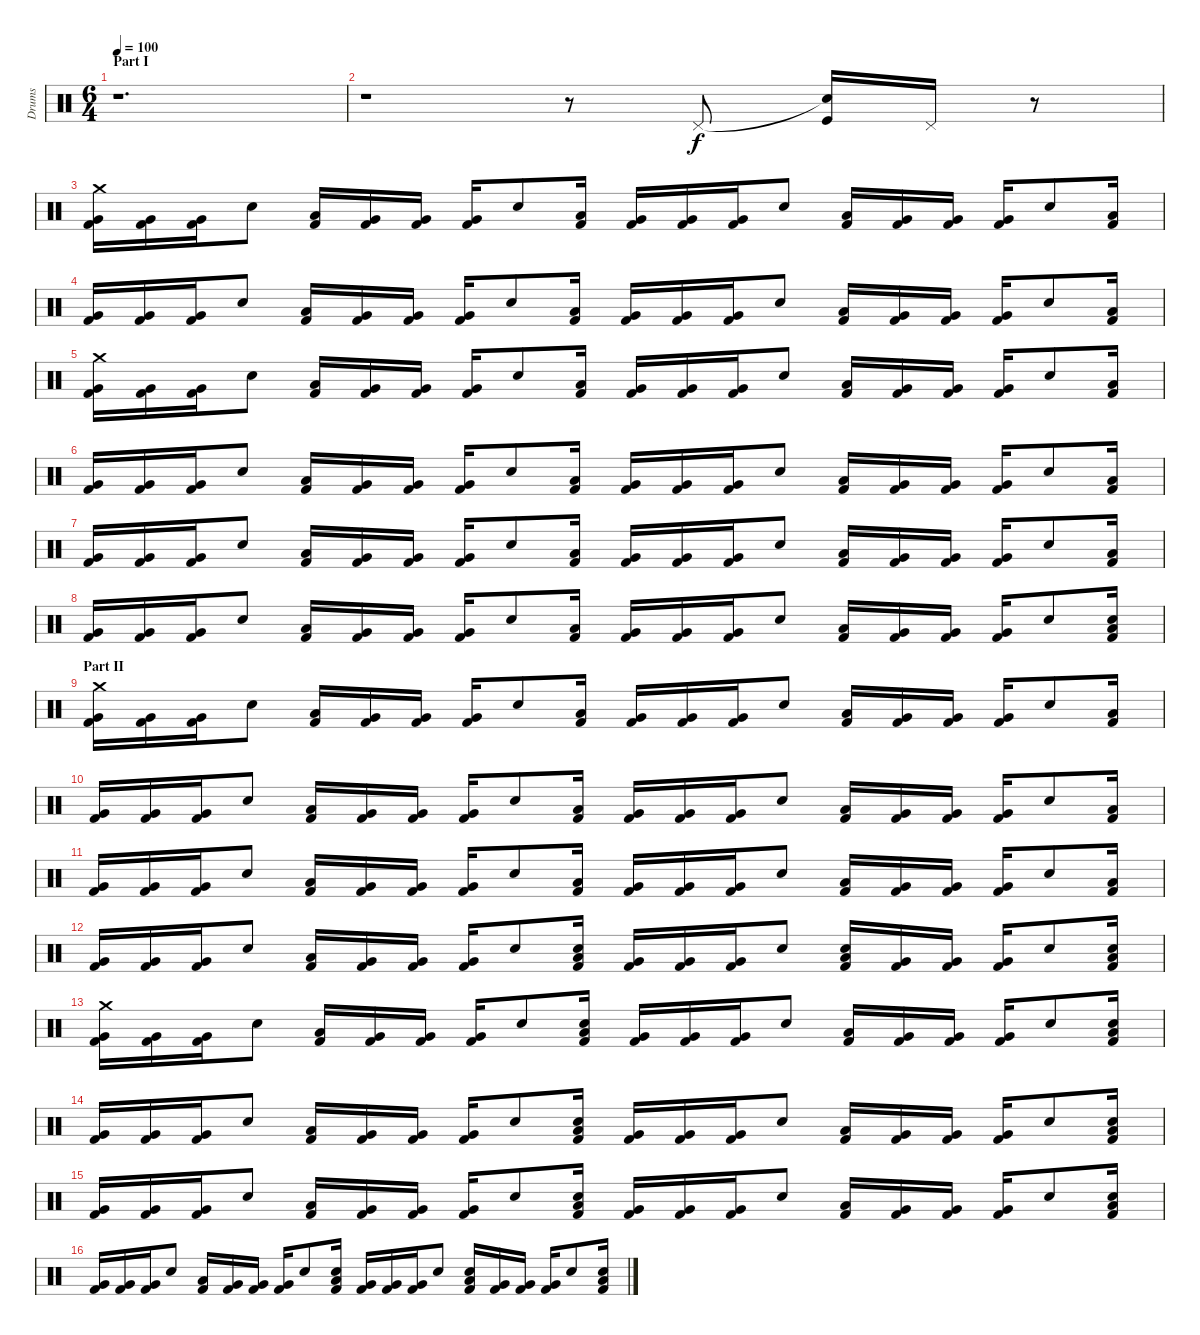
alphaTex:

\track ("Drums" "Drums") {instrument percussion}
\staff {score}
\articulation defaults
\ts (6 4)
\section ("" "Part I")
\tempo 100
\clef neutral
\ks c
r.1{d dy f} |
r.1 r.8 "Pedal Hi-Hat (hit)".8 ("Snare (hit)"{t} "Kick (hit)").16 "Pedal Hi-Hat (hit)".16 r.8 |
("Crash medium (hit)" "Very Low Tom (hit)" "Kick (hit) 2").16 ("Very Low Tom (hit)" "Kick (hit) 2").16 ("Very Low Tom (hit)" "Kick (hit) 2").16 "Electric Snare (hit)".8 ("Low Floor Tom (hit)" "Kick (hit) 2").16 ("Very Low Tom (hit)" "Kick (hit) 2").16 ("Very Low Tom (hit)" "Kick (hit) 2").16 ("Very Low Tom (hit)" "Kick (hit) 2").16 "Electric Snare (hit)".8 ("Low Floor Tom (hit)" "Kick (hit) 2").16 ("Very Low Tom (hit)" "Kick (hit) 2").16 ("Very Low Tom (hit)" "Kick (hit) 2").16 ("Very Low Tom (hit)" "Kick (hit) 2").16 "Electric Snare (hit)".8 ("Low Floor Tom (hit)" "Kick (hit) 2").16 ("Very Low Tom (hit)" "Kick (hit) 2").16 ("Very Low Tom (hit)" "Kick (hit) 2").16 ("Very Low Tom (hit)" "Kick (hit) 2").16 "Electric Snare (hit)".8 ("Low Floor Tom (hit)" "Kick (hit) 2").16 |
("Very Low Tom (hit)" "Kick (hit) 2").16 ("Very Low Tom (hit)" "Kick (hit) 2").16 ("Very Low Tom (hit)" "Kick (hit) 2").16 "Electric Snare (hit)".8 ("Low Floor Tom (hit)" "Kick (hit) 2").16 ("Very Low Tom (hit)" "Kick (hit) 2").16 ("Very Low Tom (hit)" "Kick (hit) 2").16 ("Very Low Tom (hit)" "Kick (hit) 2").16 "Electric Snare (hit)".8 ("Low Floor Tom (hit)" "Kick (hit) 2").16 ("Very Low Tom (hit)" "Kick (hit) 2").16 ("Very Low Tom (hit)" "Kick (hit) 2").16 ("Very Low Tom (hit)" "Kick (hit) 2").16 "Electric Snare (hit)".8 ("Low Floor Tom (hit)" "Kick (hit) 2").16 ("Very Low Tom (hit)" "Kick (hit) 2").16 ("Very Low Tom (hit)" "Kick (hit) 2").16 ("Very Low Tom (hit)" "Kick (hit) 2").16 "Electric Snare (hit)".8 ("Low Floor Tom (hit)" "Kick (hit) 2").16 |
("Crash medium (hit)" "Very Low Tom (hit)" "Kick (hit) 2").16 ("Very Low Tom (hit)" "Kick (hit) 2").16 ("Very Low Tom (hit)" "Kick (hit) 2").16 "Electric Snare (hit)".8 ("Low Floor Tom (hit)" "Kick (hit) 2").16 ("Very Low Tom (hit)" "Kick (hit) 2").16 ("Very Low Tom (hit)" "Kick (hit) 2").16 ("Very Low Tom (hit)" "Kick (hit) 2").16 "Electric Snare (hit)".8 ("Low Floor Tom (hit)" "Kick (hit) 2").16 ("Very Low Tom (hit)" "Kick (hit) 2").16 ("Very Low Tom (hit)" "Kick (hit) 2").16 ("Very Low Tom (hit)" "Kick (hit) 2").16 "Electric Snare (hit)".8 ("Low Floor Tom (hit)" "Kick (hit) 2").16 ("Very Low Tom (hit)" "Kick (hit) 2").16 ("Very Low Tom (hit)" "Kick (hit) 2").16 ("Very Low Tom (hit)" "Kick (hit) 2").16 "Electric Snare (hit)".8 ("Low Floor Tom (hit)" "Kick (hit) 2").16 |
("Very Low Tom (hit)" "Kick (hit) 2").16 ("Very Low Tom (hit)" "Kick (hit) 2").16 ("Very Low Tom (hit)" "Kick (hit) 2").16 "Electric Snare (hit)".8 ("Low Floor Tom (hit)" "Kick (hit) 2").16 ("Very Low Tom (hit)" "Kick (hit) 2").16 ("Very Low Tom (hit)" "Kick (hit) 2").16 ("Very Low Tom (hit)" "Kick (hit) 2").16 "Electric Snare (hit)".8 ("Low Floor Tom (hit)" "Kick (hit) 2").16 ("Very Low Tom (hit)" "Kick (hit) 2").16 ("Very Low Tom (hit)" "Kick (hit) 2").16 ("Very Low Tom (hit)" "Kick (hit) 2").16 "Electric Snare (hit)".8 ("Low Floor Tom (hit)" "Kick (hit) 2").16 ("Very Low Tom (hit)" "Kick (hit) 2").16 ("Very Low Tom (hit)" "Kick (hit) 2").16 ("Very Low Tom (hit)" "Kick (hit) 2").16 "Electric Snare (hit)".8 ("Low Floor Tom (hit)" "Kick (hit) 2").16 |
("Very Low Tom (hit)" "Kick (hit) 2").16 ("Very Low Tom (hit)" "Kick (hit) 2").16 ("Very Low Tom (hit)" "Kick (hit) 2").16 "Electric Snare (hit)".8 ("Low Floor Tom (hit)" "Kick (hit) 2").16 ("Very Low Tom (hit)" "Kick (hit) 2").16 ("Very Low Tom (hit)" "Kick (hit) 2").16 ("Very Low Tom (hit)" "Kick (hit) 2").16 "Electric Snare (hit)".8 ("Low Floor Tom (hit)" "Kick (hit) 2").16 ("Very Low Tom (hit)" "Kick (hit) 2").16 ("Very Low Tom (hit)" "Kick (hit) 2").16 ("Very Low Tom (hit)" "Kick (hit) 2").16 "Electric Snare (hit)".8 ("Low Floor Tom (hit)" "Kick (hit) 2").16 ("Very Low Tom (hit)" "Kick (hit) 2").16 ("Very Low Tom (hit)" "Kick (hit) 2").16 ("Very Low Tom (hit)" "Kick (hit) 2").16 "Electric Snare (hit)".8 ("Low Floor Tom (hit)" "Kick (hit) 2").16 |
("Very Low Tom (hit)" "Kick (hit) 2").16 ("Very Low Tom (hit)" "Kick (hit) 2").16 ("Very Low Tom (hit)" "Kick (hit) 2").16 "Electric Snare (hit)".8 ("Low Floor Tom (hit)" "Kick (hit) 2").16 ("Very Low Tom (hit)" "Kick (hit) 2").16 ("Very Low Tom (hit)" "Kick (hit) 2").16 ("Very Low Tom (hit)" "Kick (hit) 2").16 "Electric Snare (hit)".8 ("Low Floor Tom (hit)" "Kick (hit) 2").16 ("Very Low Tom (hit)" "Kick (hit) 2").16 ("Very Low Tom (hit)" "Kick (hit) 2").16 ("Very Low Tom (hit)" "Kick (hit) 2").16 "Electric Snare (hit)".8 ("Low Floor Tom (hit)" "Kick (hit) 2").16 ("Very Low Tom (hit)" "Kick (hit) 2").16 ("Very Low Tom (hit)" "Kick (hit) 2").16 ("Very Low Tom (hit)" "Kick (hit) 2").16 "Electric Snare (hit)".8 ("Electric Snare (hit)" "Low Floor Tom (hit)" "Kick (hit) 2").16 |
\section ("" "Part II")
("Crash medium (hit)" "Very Low Tom (hit)" "Kick (hit) 2").16 ("Very Low Tom (hit)" "Kick (hit) 2").16 ("Very Low Tom (hit)" "Kick (hit) 2").16 "Electric Snare (hit)".8 ("Low Floor Tom (hit)" "Kick (hit) 2").16 ("Very Low Tom (hit)" "Kick (hit) 2").16 ("Very Low Tom (hit)" "Kick (hit) 2").16 ("Very Low Tom (hit)" "Kick (hit) 2").16 "Electric Snare (hit)".8 ("Low Floor Tom (hit)" "Kick (hit) 2").16 ("Very Low Tom (hit)" "Kick (hit) 2").16 ("Very Low Tom (hit)" "Kick (hit) 2").16 ("Very Low Tom (hit)" "Kick (hit) 2").16 "Electric Snare (hit)".8 ("Low Floor Tom (hit)" "Kick (hit) 2").16 ("Very Low Tom (hit)" "Kick (hit) 2").16 ("Very Low Tom (hit)" "Kick (hit) 2").16 ("Very Low Tom (hit)" "Kick (hit) 2").16 "Electric Snare (hit)".8 ("Low Floor Tom (hit)" "Kick (hit) 2").16 |
("Very Low Tom (hit)" "Kick (hit) 2").16 ("Very Low Tom (hit)" "Kick (hit) 2").16 ("Very Low Tom (hit)" "Kick (hit) 2").16 "Electric Snare (hit)".8 ("Low Floor Tom (hit)" "Kick (hit) 2").16 ("Very Low Tom (hit)" "Kick (hit) 2").16 ("Very Low Tom (hit)" "Kick (hit) 2").16 ("Very Low Tom (hit)" "Kick (hit) 2").16 "Electric Snare (hit)".8 ("Low Floor Tom (hit)" "Kick (hit) 2").16 ("Very Low Tom (hit)" "Kick (hit) 2").16 ("Very Low Tom (hit)" "Kick (hit) 2").16 ("Very Low Tom (hit)" "Kick (hit) 2").16 "Electric Snare (hit)".8 ("Low Floor Tom (hit)" "Kick (hit) 2").16 ("Very Low Tom (hit)" "Kick (hit) 2").16 ("Very Low Tom (hit)" "Kick (hit) 2").16 ("Very Low Tom (hit)" "Kick (hit) 2").16 "Electric Snare (hit)".8 ("Low Floor Tom (hit)" "Kick (hit) 2").16 |
("Very Low Tom (hit)" "Kick (hit) 2").16 ("Very Low Tom (hit)" "Kick (hit) 2").16 ("Very Low Tom (hit)" "Kick (hit) 2").16 "Electric Snare (hit)".8 ("Low Floor Tom (hit)" "Kick (hit) 2").16 ("Very Low Tom (hit)" "Kick (hit) 2").16 ("Very Low Tom (hit)" "Kick (hit) 2").16 ("Very Low Tom (hit)" "Kick (hit) 2").16 "Electric Snare (hit)".8 ("Low Floor Tom (hit)" "Kick (hit) 2").16 ("Very Low Tom (hit)" "Kick (hit) 2").16 ("Very Low Tom (hit)" "Kick (hit) 2").16 ("Very Low Tom (hit)" "Kick (hit) 2").16 "Electric Snare (hit)".8 ("Low Floor Tom (hit)" "Kick (hit) 2").16 ("Very Low Tom (hit)" "Kick (hit) 2").16 ("Very Low Tom (hit)" "Kick (hit) 2").16 ("Very Low Tom (hit)" "Kick (hit) 2").16 "Electric Snare (hit)".8 ("Low Floor Tom (hit)" "Kick (hit) 2").16 |
("Very Low Tom (hit)" "Kick (hit) 2").16 ("Very Low Tom (hit)" "Kick (hit) 2").16 ("Very Low Tom (hit)" "Kick (hit) 2").16 "Electric Snare (hit)".8 ("Low Floor Tom (hit)" "Kick (hit) 2").16 ("Very Low Tom (hit)" "Kick (hit) 2").16 ("Very Low Tom (hit)" "Kick (hit) 2").16 ("Very Low Tom (hit)" "Kick (hit) 2").16 "Electric Snare (hit)".8 ("Electric Snare (hit)" "Low Floor Tom (hit)" "Kick (hit) 2").16 ("Very Low Tom (hit)" "Kick (hit) 2").16 ("Very Low Tom (hit)" "Kick (hit) 2").16 ("Very Low Tom (hit)" "Kick (hit) 2").16 "Electric Snare (hit)".8 ("Electric Snare (hit)" "Low Floor Tom (hit)" "Kick (hit) 2").16 ("Very Low Tom (hit)" "Kick (hit) 2").16 ("Very Low Tom (hit)" "Kick (hit) 2").16 ("Very Low Tom (hit)" "Kick (hit) 2").16 "Electric Snare (hit)".8 ("Electric Snare (hit)" "Low Floor Tom (hit)" "Kick (hit) 2").16 |
("Crash medium (hit)" "Very Low Tom (hit)" "Kick (hit) 2").16 ("Very Low Tom (hit)" "Kick (hit) 2").16 ("Very Low Tom (hit)" "Kick (hit) 2").16 "Electric Snare (hit)".8 ("Low Floor Tom (hit)" "Kick (hit) 2").16 ("Very Low Tom (hit)" "Kick (hit) 2").16 ("Very Low Tom (hit)" "Kick (hit) 2").16 ("Very Low Tom (hit)" "Kick (hit) 2").16 "Electric Snare (hit)".8 ("Electric Snare (hit)" "Low Floor Tom (hit)" "Kick (hit) 2").16 ("Very Low Tom (hit)" "Kick (hit) 2").16 ("Very Low Tom (hit)" "Kick (hit) 2").16 ("Very Low Tom (hit)" "Kick (hit) 2").16 "Electric Snare (hit)".8 ("Low Floor Tom (hit)" "Kick (hit) 2").16 ("Very Low Tom (hit)" "Kick (hit) 2").16 ("Very Low Tom (hit)" "Kick (hit) 2").16 ("Very Low Tom (hit)" "Kick (hit) 2").16 "Electric Snare (hit)".8 ("Electric Snare (hit)" "Low Floor Tom (hit)" "Kick (hit) 2").16 |
("Very Low Tom (hit)" "Kick (hit) 2").16 ("Very Low Tom (hit)" "Kick (hit) 2").16 ("Very Low Tom (hit)" "Kick (hit) 2").16 "Electric Snare (hit)".8 ("Low Floor Tom (hit)" "Kick (hit) 2").16 ("Very Low Tom (hit)" "Kick (hit) 2").16 ("Very Low Tom (hit)" "Kick (hit) 2").16 ("Very Low Tom (hit)" "Kick (hit) 2").16 "Electric Snare (hit)".8 ("Electric Snare (hit)" "Low Floor Tom (hit)" "Kick (hit) 2").16 ("Very Low Tom (hit)" "Kick (hit) 2").16 ("Very Low Tom (hit)" "Kick (hit) 2").16 ("Very Low Tom (hit)" "Kick (hit) 2").16 "Electric Snare (hit)".8 ("Low Floor Tom (hit)" "Kick (hit) 2").16 ("Very Low Tom (hit)" "Kick (hit) 2").16 ("Very Low Tom (hit)" "Kick (hit) 2").16 ("Very Low Tom (hit)" "Kick (hit) 2").16 "Electric Snare (hit)".8 ("Electric Snare (hit)" "Low Floor Tom (hit)" "Kick (hit) 2").16 |
("Very Low Tom (hit)" "Kick (hit) 2").16 ("Very Low Tom (hit)" "Kick (hit) 2").16 ("Very Low Tom (hit)" "Kick (hit) 2").16 "Electric Snare (hit)".8 ("Low Floor Tom (hit)" "Kick (hit) 2").16 ("Very Low Tom (hit)" "Kick (hit) 2").16 ("Very Low Tom (hit)" "Kick (hit) 2").16 ("Very Low Tom (hit)" "Kick (hit) 2").16 "Electric Snare (hit)".8 ("Electric Snare (hit)" "Low Floor Tom (hit)" "Kick (hit) 2").16 ("Very Low Tom (hit)" "Kick (hit) 2").16 ("Very Low Tom (hit)" "Kick (hit) 2").16 ("Very Low Tom (hit)" "Kick (hit) 2").16 "Electric Snare (hit)".8 ("Low Floor Tom (hit)" "Kick (hit) 2").16 ("Very Low Tom (hit)" "Kick (hit) 2").16 ("Very Low Tom (hit)" "Kick (hit) 2").16 ("Very Low Tom (hit)" "Kick (hit) 2").16 "Electric Snare (hit)".8 ("Electric Snare (hit)" "Low Floor Tom (hit)" "Kick (hit) 2").16 |
("Very Low Tom (hit)" "Kick (hit) 2").16 ("Very Low Tom (hit)" "Kick (hit) 2").16 ("Very Low Tom (hit)" "Kick (hit) 2").16 "Electric Snare (hit)".8 ("Low Floor Tom (hit)" "Kick (hit) 2").16 ("Very Low Tom (hit)" "Kick (hit) 2").16 ("Very Low Tom (hit)" "Kick (hit) 2").16 ("Very Low Tom (hit)" "Kick (hit) 2").16 "Electric Snare (hit)".8 ("Electric Snare (hit)" "Low Floor Tom (hit)" "Kick (hit) 2").16 ("Very Low Tom (hit)" "Kick (hit) 2").16 ("Very Low Tom (hit)" "Kick (hit) 2").16 ("Very Low Tom (hit)" "Kick (hit) 2").16 "Electric Snare (hit)".8 ("Electric Snare (hit)" "Low Floor Tom (hit)" "Kick (hit) 2").16 ("Very Low Tom (hit)" "Kick (hit) 2").16 ("Very Low Tom (hit)" "Kick (hit) 2").16 ("Very Low Tom (hit)" "Kick (hit) 2").16 "Electric Snare (hit)".8 ("Electric Snare (hit)" "Low Floor Tom (hit)" "Kick (hit) 2").16
